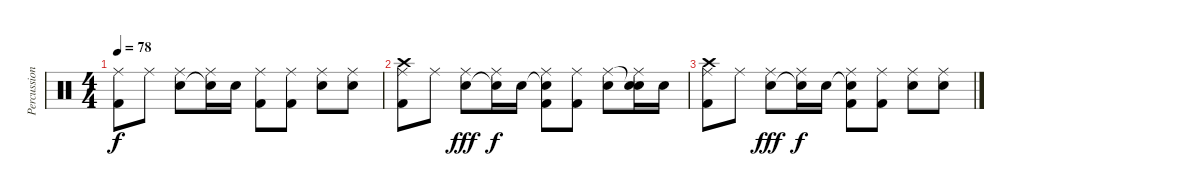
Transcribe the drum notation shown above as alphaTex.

\track ("Percussion" "Percussion") {instrument percussion}
\staff {score}
\articulation defaults
\ts (4 4)
\tempo 78
\clef neutral
\ks c
("Ride (middle)" "Kick (hit) 2").8{dy f} "Ride (middle)".8 ("Ride (middle)" "Electric Snare (hit)").8 ("Ride (middle)" "Snare (hit)"{t}).16 "Snare (hit) 2".16 ("Ride (middle)" "Kick (hit) 2").8 ("Ride (middle)" "Kick (hit) 2").8 ("Ride (middle)" "Electric Snare (hit)").8 ("Ride (middle)" "Electric Snare (hit)").8 |
("Crash high (hit)" "Ride (middle)" "Kick (hit) 2").8{volume 0} "Ride (middle)".8 ("Ride (middle)" "Electric Snare (hit)").8{dy fff} ("Ride (middle)" "Snare (hit)"{t}).16{dy f} "Snare (hit) 2".16 ("Snare (hit)"{t} "Ride (middle)" "Kick (hit) 2").8 ("Ride (middle)" "Kick (hit) 2").8 ("Ride (middle)" "Electric Snare (hit)").8 ("Snare (hit)"{t} "Ride (middle)" "Electric Snare (hit)").16 "Electric Snare (hit)".16 |
("Crash high (hit)" "Ride (middle)" "Kick (hit) 2").8 "Ride (middle)".8 ("Ride (middle)" "Electric Snare (hit)").8{dy fff} ("Ride (middle)" "Snare (hit)"{t}).16{dy f} "Snare (hit) 2".16 ("Snare (hit)"{t} "Ride (middle)" "Kick (hit) 2").8 ("Ride (middle)" "Kick (hit) 2").8 ("Ride (middle)" "Electric Snare (hit)").8 ("Ride (middle)" "Electric Snare (hit)").8
